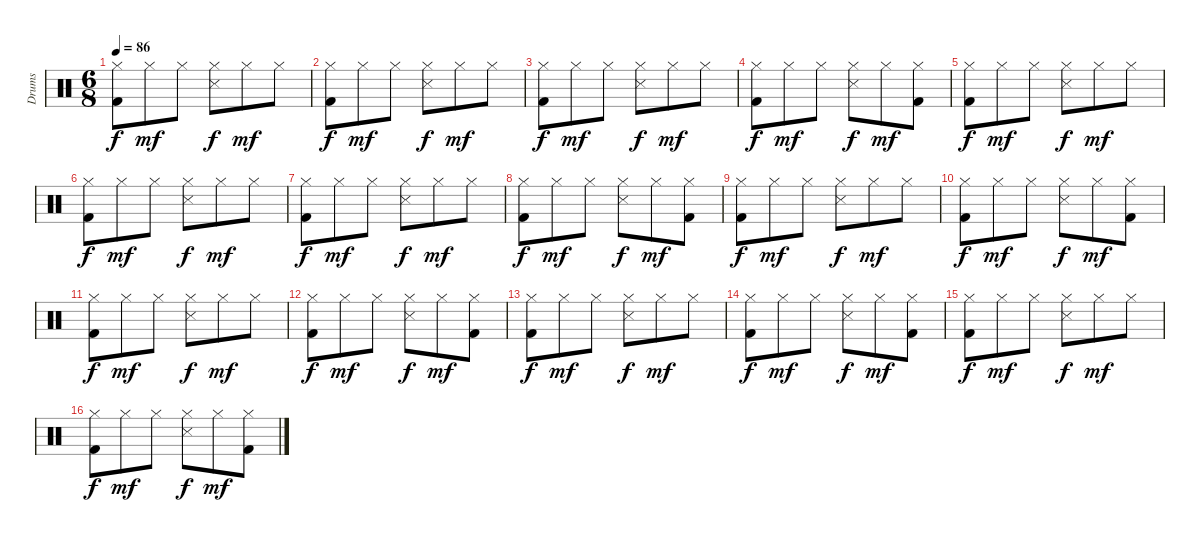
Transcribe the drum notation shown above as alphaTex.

\track ("Drums" "Drums") {instrument percussion}
\staff {score}
\articulation defaults
\ts (6 8)
\tempo 86
\clef neutral
\ks c
("Hi-Hat (closed)" "Kick (hit) 2").8{dy f} "Hi-Hat (closed)".8{dy mf} "Hi-Hat (closed)".8 ("Hi-Hat (closed)" "Snare (side stick) 3").8{dy f} "Hi-Hat (closed)".8{dy mf} "Hi-Hat (closed)".8 |
("Hi-Hat (closed)" "Kick (hit) 2").8{dy f} "Hi-Hat (closed)".8{dy mf} "Hi-Hat (closed)".8 ("Hi-Hat (closed)" "Snare (side stick) 3").8{dy f} "Hi-Hat (closed)".8{dy mf} "Hi-Hat (closed)".8 |
("Hi-Hat (closed)" "Kick (hit) 2").8{dy f} "Hi-Hat (closed)".8{dy mf} "Hi-Hat (closed)".8 ("Hi-Hat (closed)" "Snare (side stick) 3").8{dy f} "Hi-Hat (closed)".8{dy mf} "Hi-Hat (closed)".8 |
("Hi-Hat (closed)" "Kick (hit) 2").8{dy f} "Hi-Hat (closed)".8{dy mf} "Hi-Hat (closed)".8 ("Hi-Hat (closed)" "Snare (side stick) 3").8{dy f} "Hi-Hat (closed)".8{dy mf} ("Hi-Hat (closed)" "Kick (hit) 2").8 |
("Hi-Hat (closed)" "Kick (hit) 2").8{dy f} "Hi-Hat (closed)".8{dy mf} "Hi-Hat (closed)".8 ("Hi-Hat (closed)" "Snare (side stick) 3").8{dy f} "Hi-Hat (closed)".8{dy mf} "Hi-Hat (closed)".8 |
("Hi-Hat (closed)" "Kick (hit) 2").8{dy f} "Hi-Hat (closed)".8{dy mf} "Hi-Hat (closed)".8 ("Hi-Hat (closed)" "Snare (side stick) 3").8{dy f} "Hi-Hat (closed)".8{dy mf} "Hi-Hat (closed)".8 |
("Hi-Hat (closed)" "Kick (hit) 2").8{dy f} "Hi-Hat (closed)".8{dy mf} "Hi-Hat (closed)".8 ("Hi-Hat (closed)" "Snare (side stick) 3").8{dy f} "Hi-Hat (closed)".8{dy mf} "Hi-Hat (closed)".8 |
("Hi-Hat (closed)" "Kick (hit) 2").8{dy f} "Hi-Hat (closed)".8{dy mf} "Hi-Hat (closed)".8 ("Hi-Hat (closed)" "Snare (side stick) 3").8{dy f} "Hi-Hat (closed)".8{dy mf} ("Hi-Hat (closed)" "Kick (hit) 2").8 |
("Hi-Hat (closed)" "Kick (hit) 2").8{dy f} "Hi-Hat (closed)".8{dy mf} "Hi-Hat (closed)".8 ("Hi-Hat (closed)" "Snare (side stick) 3").8{dy f} "Hi-Hat (closed)".8{dy mf} "Hi-Hat (closed)".8 |
("Hi-Hat (closed)" "Kick (hit) 2").8{dy f} "Hi-Hat (closed)".8{dy mf} "Hi-Hat (closed)".8 ("Hi-Hat (closed)" "Snare (side stick) 3").8{dy f} "Hi-Hat (closed)".8{dy mf} ("Hi-Hat (closed)" "Kick (hit) 2").8 |
("Hi-Hat (closed)" "Kick (hit) 2").8{dy f} "Hi-Hat (closed)".8{dy mf} "Hi-Hat (closed)".8 ("Hi-Hat (closed)" "Snare (side stick) 3").8{dy f} "Hi-Hat (closed)".8{dy mf} "Hi-Hat (closed)".8 |
("Hi-Hat (closed)" "Kick (hit) 2").8{dy f} "Hi-Hat (closed)".8{dy mf} "Hi-Hat (closed)".8 ("Hi-Hat (closed)" "Snare (side stick) 3").8{dy f} "Hi-Hat (closed)".8{dy mf} ("Hi-Hat (closed)" "Kick (hit) 2").8 |
("Hi-Hat (closed)" "Kick (hit) 2").8{dy f} "Hi-Hat (closed)".8{dy mf} "Hi-Hat (closed)".8 ("Hi-Hat (closed)" "Snare (side stick) 3").8{dy f} "Hi-Hat (closed)".8{dy mf} "Hi-Hat (closed)".8 |
("Hi-Hat (closed)" "Kick (hit) 2").8{dy f} "Hi-Hat (closed)".8{dy mf} "Hi-Hat (closed)".8 ("Hi-Hat (closed)" "Snare (side stick) 3").8{dy f} "Hi-Hat (closed)".8{dy mf} ("Hi-Hat (closed)" "Kick (hit) 2").8 |
("Hi-Hat (closed)" "Kick (hit) 2").8{dy f} "Hi-Hat (closed)".8{dy mf} "Hi-Hat (closed)".8 ("Hi-Hat (closed)" "Snare (side stick) 3").8{dy f} "Hi-Hat (closed)".8{dy mf} "Hi-Hat (closed)".8 |
("Hi-Hat (closed)" "Kick (hit) 2").8{dy f} "Hi-Hat (closed)".8{dy mf} "Hi-Hat (closed)".8 ("Hi-Hat (closed)" "Snare (side stick) 3").8{dy f} "Hi-Hat (closed)".8{dy mf} ("Hi-Hat (closed)" "Kick (hit) 2").8
